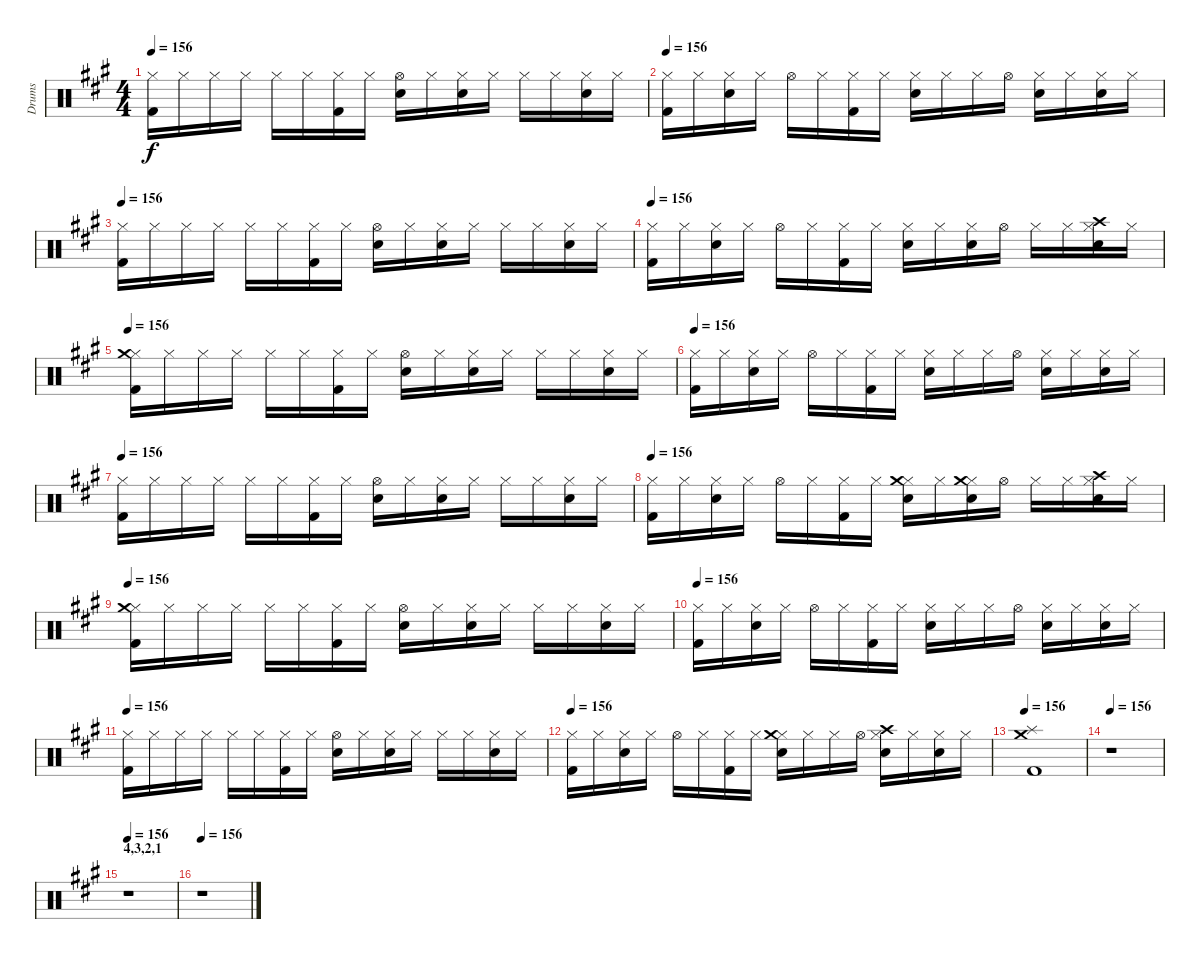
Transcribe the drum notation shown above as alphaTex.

\track ("Drums" "Drums") {instrument percussion}
\staff {score}
\articulation defaults
\ts (4 4)
\tempo 156
\clef neutral
\ks f#minor
("Hi-Hat (closed)" "Kick (hit) 2").16{dy f} "Hi-Hat (closed)".16 "Hi-Hat (closed)".16 "Hi-Hat (closed)".16 "Hi-Hat (closed)".16 "Hi-Hat (closed)".16 ("Hi-Hat (closed)" "Kick (hit) 2").16 "Hi-Hat (closed)".16 ("Hi-Hat (open)" "Snare (hit) 2").16 "Hi-Hat (closed)".16 ("Hi-Hat (closed)" "Snare (hit) 2").16 "Hi-Hat (closed)".16 "Hi-Hat (closed)".16 "Hi-Hat (closed)".16 ("Hi-Hat (closed)" "Snare (hit) 2").16 "Hi-Hat (closed)".16 |
\tempo 156
("Hi-Hat (closed)" "Kick (hit) 2").16 "Hi-Hat (closed)".16 ("Hi-Hat (closed)" "Snare (hit) 2").16 "Hi-Hat (closed)".16 "Hi-Hat (open)".16 "Hi-Hat (closed)".16 ("Hi-Hat (closed)" "Kick (hit) 2").16 "Hi-Hat (closed)".16 ("Hi-Hat (closed)" "Snare (hit) 2").16 "Hi-Hat (closed)".16 "Hi-Hat (closed)".16 "Hi-Hat (open)".16 ("Hi-Hat (closed)" "Snare (hit) 2").16 "Hi-Hat (closed)".16 ("Hi-Hat (closed)" "Snare (hit) 2").16 "Hi-Hat (closed)".16 |
\tempo 156
("Hi-Hat (closed)" "Kick (hit) 2").16 "Hi-Hat (closed)".16 "Hi-Hat (closed)".16 "Hi-Hat (closed)".16 "Hi-Hat (closed)".16 "Hi-Hat (closed)".16 ("Hi-Hat (closed)" "Kick (hit) 2").16 "Hi-Hat (closed)".16 ("Hi-Hat (open)" "Snare (hit) 2").16 "Hi-Hat (closed)".16 ("Hi-Hat (closed)" "Snare (hit) 2").16 "Hi-Hat (closed)".16 "Hi-Hat (closed)".16 "Hi-Hat (closed)".16 ("Hi-Hat (closed)" "Snare (hit) 2").16 "Hi-Hat (closed)".16 |
\tempo 156
("Hi-Hat (closed)" "Kick (hit) 2").16 "Hi-Hat (closed)".16 ("Hi-Hat (closed)" "Snare (hit) 2").16 "Hi-Hat (closed)".16 "Hi-Hat (open)".16 "Hi-Hat (closed)".16 ("Hi-Hat (closed)" "Kick (hit) 2").16 "Hi-Hat (closed)".16 ("Hi-Hat (closed)" "Snare (hit) 2").16 "Hi-Hat (closed)".16 ("Hi-Hat (closed)" "Snare (hit) 2").16 "Hi-Hat (open)".16 "Hi-Hat (closed)".16 "Hi-Hat (closed)".16 ("Hi-Hat (closed)" "Crash high (hit)" "Snare (hit) 2").16 "Hi-Hat (closed)".16 |
\tempo 156
("Hi-Hat (closed)" "Crash medium (hit)" "Kick (hit) 2").16 "Hi-Hat (closed)".16 "Hi-Hat (closed)".16 "Hi-Hat (closed)".16 "Hi-Hat (closed)".16 "Hi-Hat (closed)".16 ("Hi-Hat (closed)" "Kick (hit) 2").16 "Hi-Hat (closed)".16 ("Hi-Hat (open)" "Snare (hit) 2").16 "Hi-Hat (closed)".16 ("Hi-Hat (closed)" "Snare (hit) 2").16 "Hi-Hat (closed)".16 "Hi-Hat (closed)".16 "Hi-Hat (closed)".16 ("Hi-Hat (closed)" "Snare (hit) 2").16 "Hi-Hat (closed)".16 |
\tempo 156
("Hi-Hat (closed)" "Kick (hit) 2").16 "Hi-Hat (closed)".16 ("Hi-Hat (closed)" "Snare (hit) 2").16 "Hi-Hat (closed)".16 "Hi-Hat (open)".16 "Hi-Hat (closed)".16 ("Hi-Hat (closed)" "Kick (hit) 2").16 "Hi-Hat (closed)".16 ("Hi-Hat (closed)" "Snare (hit) 2").16 "Hi-Hat (closed)".16 "Hi-Hat (closed)".16 "Hi-Hat (open)".16 ("Hi-Hat (closed)" "Snare (hit) 2").16 "Hi-Hat (closed)".16 ("Hi-Hat (closed)" "Snare (hit) 2").16 "Hi-Hat (closed)".16 |
\tempo 156
("Hi-Hat (closed)" "Kick (hit) 2").16 "Hi-Hat (closed)".16 "Hi-Hat (closed)".16 "Hi-Hat (closed)".16 "Hi-Hat (closed)".16 "Hi-Hat (closed)".16 ("Hi-Hat (closed)" "Kick (hit) 2").16 "Hi-Hat (closed)".16 ("Hi-Hat (open)" "Snare (hit) 2").16 "Hi-Hat (closed)".16 ("Hi-Hat (closed)" "Snare (hit) 2").16 "Hi-Hat (closed)".16 "Hi-Hat (closed)".16 "Hi-Hat (closed)".16 ("Hi-Hat (closed)" "Snare (hit) 2").16 "Hi-Hat (closed)".16 |
\tempo 156
("Hi-Hat (closed)" "Kick (hit) 2").16 "Hi-Hat (closed)".16 ("Hi-Hat (closed)" "Snare (hit) 2").16 "Hi-Hat (closed)".16 "Hi-Hat (open)".16 "Hi-Hat (closed)".16 ("Hi-Hat (closed)" "Kick (hit) 2").16 "Hi-Hat (closed)".16 ("Hi-Hat (closed)" "Crash medium (hit)" "Snare (hit) 2").16 "Hi-Hat (closed)".16 ("Hi-Hat (closed)" "Crash medium (hit)" "Snare (hit) 2").16 "Hi-Hat (open)".16 "Hi-Hat (closed)".16 "Hi-Hat (closed)".16 ("Hi-Hat (closed)" "Crash high (hit)" "Snare (hit) 2").16 "Hi-Hat (closed)".16 |
\tempo 156
("Hi-Hat (closed)" "Crash medium (hit)" "Kick (hit) 2").16 "Hi-Hat (closed)".16 "Hi-Hat (closed)".16 "Hi-Hat (closed)".16 "Hi-Hat (closed)".16 "Hi-Hat (closed)".16 ("Hi-Hat (closed)" "Kick (hit) 2").16 "Hi-Hat (closed)".16 ("Hi-Hat (open)" "Snare (hit) 2").16 "Hi-Hat (closed)".16 ("Hi-Hat (closed)" "Snare (hit) 2").16 "Hi-Hat (closed)".16 "Hi-Hat (closed)".16 "Hi-Hat (closed)".16 ("Hi-Hat (closed)" "Snare (hit) 2").16 "Hi-Hat (closed)".16 |
\tempo 156
("Hi-Hat (closed)" "Kick (hit) 2").16 "Hi-Hat (closed)".16 ("Hi-Hat (closed)" "Snare (hit) 2").16 "Hi-Hat (closed)".16 "Hi-Hat (open)".16 "Hi-Hat (closed)".16 ("Hi-Hat (closed)" "Kick (hit) 2").16 "Hi-Hat (closed)".16 ("Hi-Hat (closed)" "Snare (hit) 2").16 "Hi-Hat (closed)".16 "Hi-Hat (closed)".16 "Hi-Hat (open)".16 ("Hi-Hat (closed)" "Snare (hit) 2").16 "Hi-Hat (closed)".16 ("Hi-Hat (closed)" "Snare (hit) 2").16 "Hi-Hat (closed)".16 |
\tempo 156
("Hi-Hat (closed)" "Kick (hit) 2").16 "Hi-Hat (closed)".16 "Hi-Hat (closed)".16 "Hi-Hat (closed)".16 "Hi-Hat (closed)".16 "Hi-Hat (closed)".16 ("Hi-Hat (closed)" "Kick (hit) 2").16 "Hi-Hat (closed)".16 ("Hi-Hat (open)" "Snare (hit) 2").16 "Hi-Hat (closed)".16 ("Hi-Hat (closed)" "Snare (hit) 2").16 "Hi-Hat (closed)".16 "Hi-Hat (closed)".16 "Hi-Hat (closed)".16 ("Hi-Hat (closed)" "Snare (hit) 2").16 "Hi-Hat (closed)".16 |
\tempo 156
("Hi-Hat (closed)" "Kick (hit) 2").16 "Hi-Hat (closed)".16 ("Hi-Hat (closed)" "Snare (hit) 2").16 "Hi-Hat (closed)".16 "Hi-Hat (open)".16 "Hi-Hat (closed)".16 ("Hi-Hat (closed)" "Kick (hit) 2").16 "Hi-Hat (closed)".16 ("Hi-Hat (closed)" "Crash medium (hit)" "Snare (hit) 2").16 "Hi-Hat (closed)".16 "Hi-Hat (closed)".16 "Hi-Hat (open)".16 ("Hi-Hat (closed)" "Crash high (hit)" "Snare (hit) 2").16 "Hi-Hat (closed)".16 ("Hi-Hat (closed)" "Snare (hit) 2").16 "Hi-Hat (closed)".16 |
\tempo 156
("Crash medium (hit)" "Splash (hit)" "Kick (hit) 2").1 |
\tempo 156
r.1 |
\section ("" "4,3,2,1 ")
\tempo 156
r.1 |
\tempo 156
r.1
